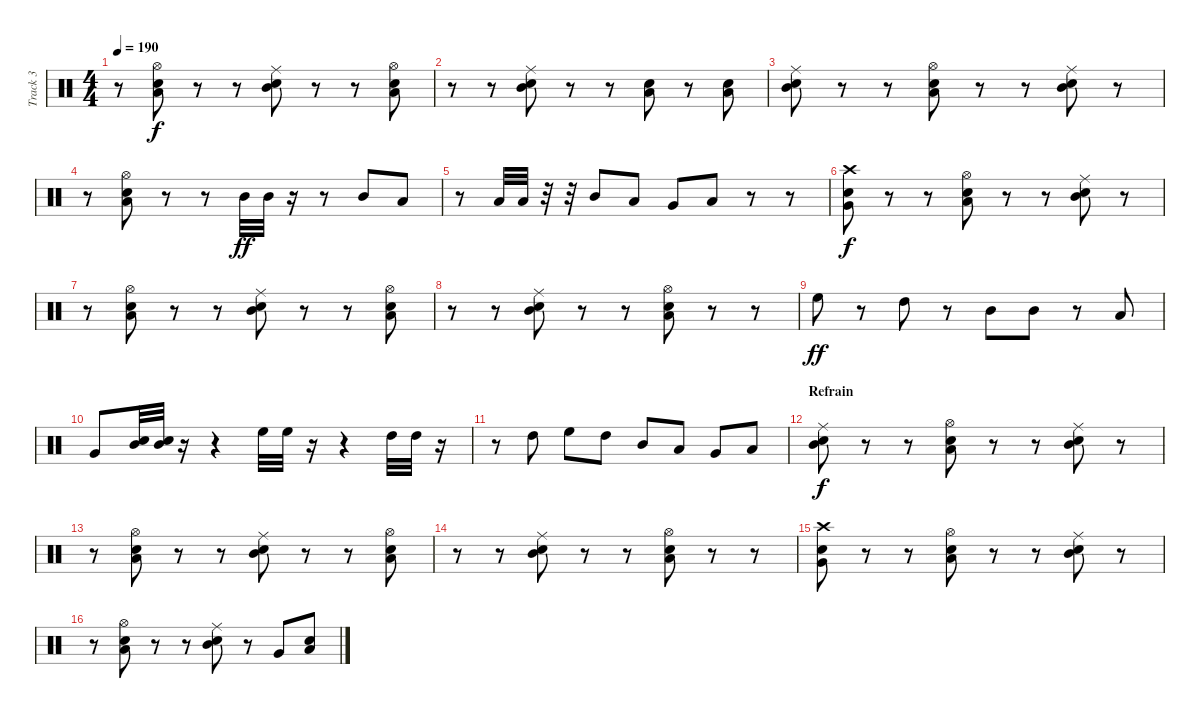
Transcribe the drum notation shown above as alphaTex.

\track ("Track 3" "Track 3") {instrument percussion}
\staff {score}
\articulation defaults
\ts (4 4)
\tempo 190
\clef neutral
\ks c
r.8{dy f} ("Low Tom (hit)" "Snare (hit) 2" "Hi-Hat (open)").8 r.8 r.8 ("Mid Tom (hit)" "Snare (hit) 2" "Ride (middle)").8 r.8 r.8 ("Low Tom (hit)" "Snare (hit) 2" "Hi-Hat (open)").8 |
r.8 r.8 ("Mid Tom (hit)" "Snare (hit) 2" "Ride (middle)").8 r.8 r.8 ("Low Tom (hit)" "Snare (hit) 2").8 r.8 ("Electric Snare (hit)" "Low Tom (hit)").8 |
("Mid Tom (hit)" "Snare (hit) 2" "Ride (middle)").8 r.8 r.8 ("Low Tom (hit)" "Snare (hit) 2" "Hi-Hat (open)").8 r.8 r.8 ("Mid Tom (hit)" "Snare (hit) 2" "Ride (middle)").8 r.8 |
r.8 ("Low Tom (hit)" "Snare (hit) 2" "Hi-Hat (open)").8 r.8 r.8 "Mid Tom (hit)".32{dy ff} "Mid Tom (hit)".32 r.16 r.8 "Mid Tom (hit)".8 "Low Tom (hit)".8 |
r.8 "Low Tom (hit)".32 "Low Tom (hit)".32 r.32 r.32 "Mid Tom (hit)".8 "Low Tom (hit)".8 "Very Low Tom (hit)".8 "Low Tom (hit)".8 r.8 r.8 |
("Very Low Tom (hit)" "Snare (hit) 2" "Crash high (hit)").8{dy f} r.8 r.8 ("Low Tom (hit)" "Snare (hit) 2" "Hi-Hat (open)").8 r.8 r.8 ("Mid Tom (hit)" "Snare (hit) 2" "Ride (middle)").8 r.8 |
r.8 ("Low Tom (hit)" "Snare (hit) 2" "Hi-Hat (open)").8 r.8 r.8 ("Mid Tom (hit)" "Snare (hit) 2" "Ride (middle)").8 r.8 r.8 ("Low Tom (hit)" "Snare (hit) 2" "Hi-Hat (open)").8 |
r.8 r.8 ("Mid Tom (hit)" "Snare (hit) 2" "Ride (middle)").8 r.8 r.8 ("Low Tom (hit)" "Snare (hit) 2" "Hi-Hat (open)").8 r.8 r.8 |
"High Floor Tom (hit)".8{dy ff} r.8 "High Tom (hit)".8 r.8 "Mid Tom (hit)".8 "Mid Tom (hit)".8 r.8 "Low Tom (hit)".8 |
"Very Low Tom (hit)".8 ("Mid Tom (hit)" "Snare (hit) 2").32 ("Mid Tom (hit)" "Snare (hit) 2").32 r.16 r.4 "High Floor Tom (hit)".32 "High Floor Tom (hit)".32 r.16 r.4 "High Tom (hit)".32 "High Tom (hit)".32 r.16 |
r.8 "High Tom (hit)".8 "High Floor Tom (hit)".8 "High Tom (hit)".8 "Mid Tom (hit)".8 "Low Tom (hit)".8 "Very Low Tom (hit)".8 "Low Floor Tom (hit)".8 |
\section ("" "Refrain")
("Mid Tom (hit)" "Snare (hit) 2" "Ride (middle)").8{dy f} r.8 r.8 ("Low Tom (hit)" "Snare (hit) 2" "Hi-Hat (open)").8 r.8 r.8 ("Mid Tom (hit)" "Snare (hit) 2" "Ride (middle)").8 r.8 |
r.8 ("Low Tom (hit)" "Snare (hit) 2" "Hi-Hat (open)").8 r.8 r.8 ("Mid Tom (hit)" "Snare (hit) 2" "Ride (middle)").8 r.8 r.8 ("Low Tom (hit)" "Snare (hit) 2" "Hi-Hat (open)").8 |
r.8 r.8 ("Mid Tom (hit)" "Snare (hit) 2" "Ride (middle)").8 r.8 r.8 ("Low Tom (hit)" "Snare (hit) 2" "Hi-Hat (open)").8 r.8 r.8 |
("Very Low Tom (hit)" "Snare (hit) 2" "Crash high (hit)").8 r.8 r.8 ("Low Tom (hit)" "Snare (hit) 2" "Hi-Hat (open)").8 r.8 r.8 ("Mid Tom (hit)" "Snare (hit) 2" "Ride (middle)").8 r.8 |
r.8 ("Low Tom (hit)" "Snare (hit) 2" "Hi-Hat (open)").8 r.8 r.8 ("Mid Tom (hit)" "Snare (hit) 2" "Ride (middle)").8 r.8 "Very Low Tom (hit)".8 ("Electric Snare (hit)" "Low Tom (hit)").8
